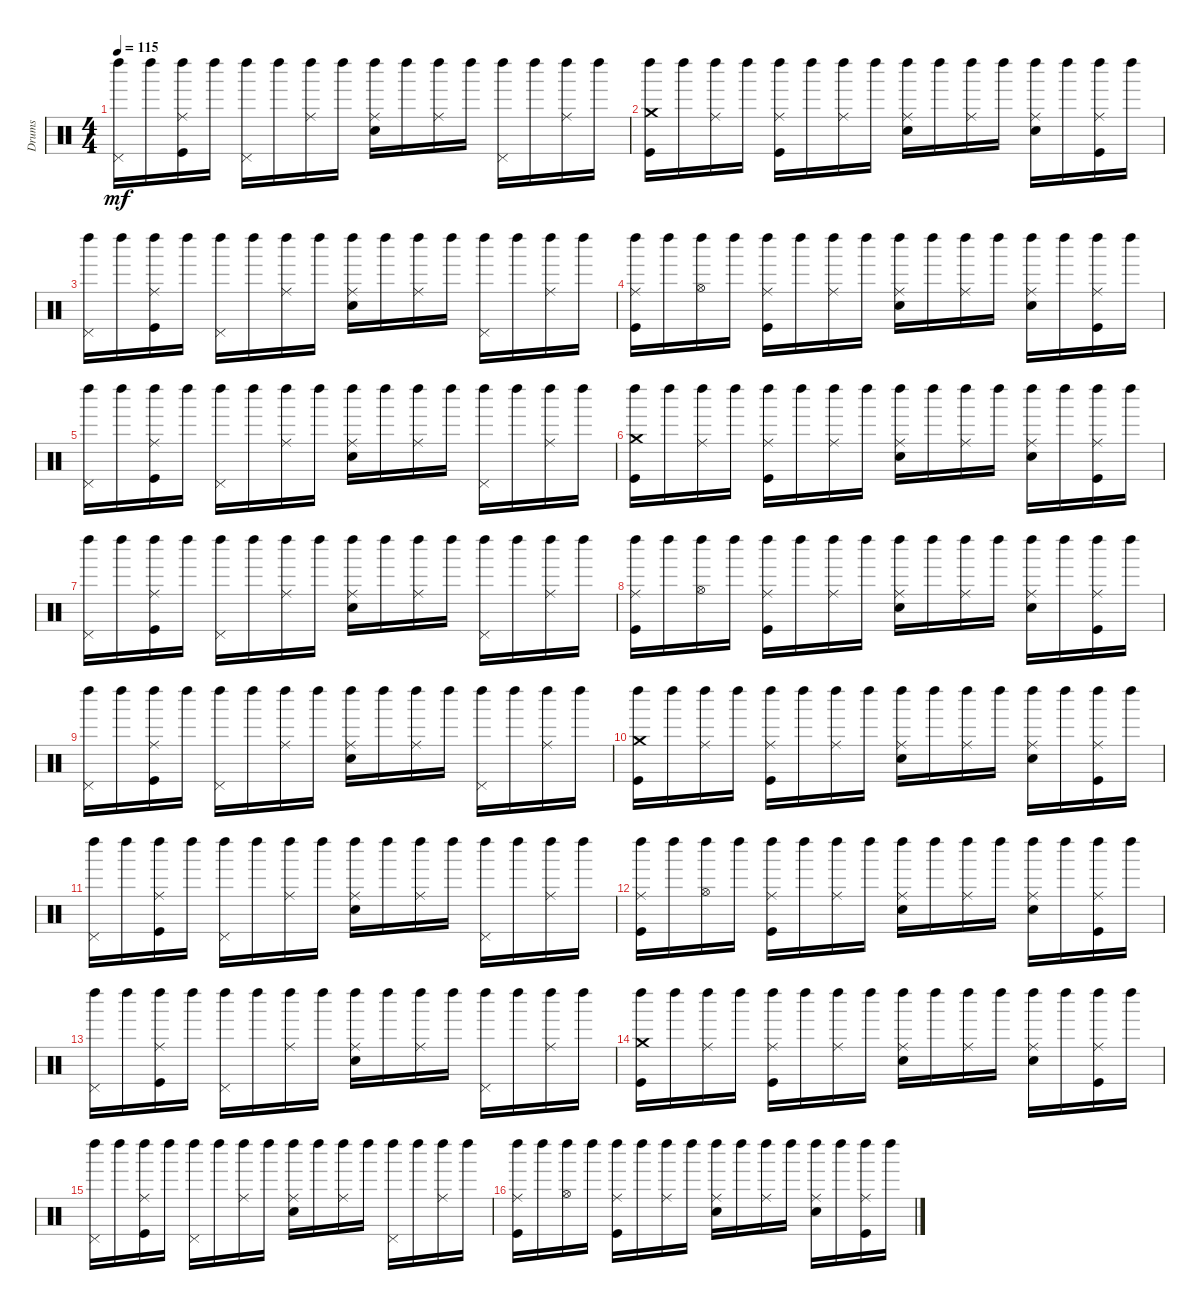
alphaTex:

\track ("Drums" "Drums") {instrument percussion}
\staff {score}
\articulation defaults
\ts (4 4)
\tempo 115
\clef neutral
\ks c
("Left Maraca (hit)" "Pedal Hi-Hat (hit)").16{dy mf} "Left Maraca (hit)".16 ("Left Maraca (hit)" "Ride (middle)" "Kick (hit)").16 "Left Maraca (hit)".16 ("Left Maraca (hit)" "Pedal Hi-Hat (hit)").16 "Left Maraca (hit)".16 ("Left Maraca (hit)" "Ride (middle)").16 "Left Maraca (hit)".16 ("Left Maraca (hit)" "Ride (middle)" "Snare (hit) 2").16 "Left Maraca (hit)".16 ("Left Maraca (hit)" "Ride (middle)").16 "Left Maraca (hit)".16 ("Left Maraca (hit)" "Pedal Hi-Hat (hit)").16 "Left Maraca (hit)".16 ("Left Maraca (hit)" "Ride (middle)").16 "Left Maraca (hit)".16 |
("Left Maraca (hit)" "Crash medium (hit)" "Kick (hit)").16 "Left Maraca (hit)".16 ("Left Maraca (hit)" "Ride (middle)").16 "Left Maraca (hit)".16 ("Left Maraca (hit)" "Ride (middle)" "Kick (hit)").16 "Left Maraca (hit)".16 ("Left Maraca (hit)" "Ride (middle)").16 "Left Maraca (hit)".16 ("Left Maraca (hit)" "Ride (middle)" "Snare (hit) 2").16 "Left Maraca (hit)".16 ("Left Maraca (hit)" "Ride (middle)").16 "Left Maraca (hit)".16 ("Left Maraca (hit)" "Ride (middle)" "Snare (hit) 2").16 "Left Maraca (hit)".16 ("Left Maraca (hit)" "Ride (middle)" "Kick (hit)").16 "Left Maraca (hit)".16 |
("Left Maraca (hit)" "Pedal Hi-Hat (hit)").16 "Left Maraca (hit)".16 ("Left Maraca (hit)" "Ride (middle)" "Kick (hit)").16 "Left Maraca (hit)".16 ("Left Maraca (hit)" "Pedal Hi-Hat (hit)").16 "Left Maraca (hit)".16 ("Left Maraca (hit)" "Ride (middle)").16 "Left Maraca (hit)".16 ("Left Maraca (hit)" "Ride (middle)" "Snare (hit) 2").16 "Left Maraca (hit)".16 ("Left Maraca (hit)" "Ride (middle)").16 "Left Maraca (hit)".16 ("Left Maraca (hit)" "Pedal Hi-Hat (hit)").16 "Left Maraca (hit)".16 ("Left Maraca (hit)" "Ride (middle)").16 "Left Maraca (hit)".16 |
("Left Maraca (hit)" "Ride (middle)" "Kick (hit)").16 "Left Maraca (hit)".16 ("Left Maraca (hit)" "Hi-Hat (open)").16 "Left Maraca (hit)".16 ("Left Maraca (hit)" "Ride (middle)" "Kick (hit)").16 "Left Maraca (hit)".16 ("Left Maraca (hit)" "Ride (middle)").16 "Left Maraca (hit)".16 ("Left Maraca (hit)" "Ride (middle)" "Snare (hit) 2").16 "Left Maraca (hit)".16 ("Left Maraca (hit)" "Ride (middle)").16 "Left Maraca (hit)".16 ("Left Maraca (hit)" "Ride (middle)" "Snare (hit) 2").16 "Left Maraca (hit)".16 ("Left Maraca (hit)" "Ride (middle)" "Kick (hit)").16 "Left Maraca (hit)".16 |
("Left Maraca (hit)" "Pedal Hi-Hat (hit)").16 "Left Maraca (hit)".16 ("Left Maraca (hit)" "Ride (middle)" "Kick (hit)").16 "Left Maraca (hit)".16 ("Left Maraca (hit)" "Pedal Hi-Hat (hit)").16 "Left Maraca (hit)".16 ("Left Maraca (hit)" "Ride (middle)").16 "Left Maraca (hit)".16 ("Left Maraca (hit)" "Ride (middle)" "Snare (hit) 2").16 "Left Maraca (hit)".16 ("Left Maraca (hit)" "Ride (middle)").16 "Left Maraca (hit)".16 ("Left Maraca (hit)" "Pedal Hi-Hat (hit)").16 "Left Maraca (hit)".16 ("Left Maraca (hit)" "Ride (middle)").16 "Left Maraca (hit)".16 |
("Left Maraca (hit)" "Crash medium (hit)" "Kick (hit)").16 "Left Maraca (hit)".16 ("Left Maraca (hit)" "Ride (middle)").16 "Left Maraca (hit)".16 ("Left Maraca (hit)" "Ride (middle)" "Kick (hit)").16 "Left Maraca (hit)".16 ("Left Maraca (hit)" "Ride (middle)").16 "Left Maraca (hit)".16 ("Left Maraca (hit)" "Ride (middle)" "Snare (hit) 2").16 "Left Maraca (hit)".16 ("Left Maraca (hit)" "Ride (middle)").16 "Left Maraca (hit)".16 ("Left Maraca (hit)" "Ride (middle)" "Snare (hit) 2").16 "Left Maraca (hit)".16 ("Left Maraca (hit)" "Ride (middle)" "Kick (hit)").16 "Left Maraca (hit)".16 |
("Left Maraca (hit)" "Pedal Hi-Hat (hit)").16 "Left Maraca (hit)".16 ("Left Maraca (hit)" "Ride (middle)" "Kick (hit)").16 "Left Maraca (hit)".16 ("Left Maraca (hit)" "Pedal Hi-Hat (hit)").16 "Left Maraca (hit)".16 ("Left Maraca (hit)" "Ride (middle)").16 "Left Maraca (hit)".16 ("Left Maraca (hit)" "Ride (middle)" "Snare (hit) 2").16 "Left Maraca (hit)".16 ("Left Maraca (hit)" "Ride (middle)").16 "Left Maraca (hit)".16 ("Left Maraca (hit)" "Pedal Hi-Hat (hit)").16 "Left Maraca (hit)".16 ("Left Maraca (hit)" "Ride (middle)").16 "Left Maraca (hit)".16 |
("Left Maraca (hit)" "Ride (middle)" "Kick (hit)").16 "Left Maraca (hit)".16 ("Left Maraca (hit)" "Hi-Hat (open)").16 "Left Maraca (hit)".16 ("Left Maraca (hit)" "Ride (middle)" "Kick (hit)").16 "Left Maraca (hit)".16 ("Left Maraca (hit)" "Ride (middle)").16 "Left Maraca (hit)".16 ("Left Maraca (hit)" "Ride (middle)" "Snare (hit) 2").16 "Left Maraca (hit)".16 ("Left Maraca (hit)" "Ride (middle)").16 "Left Maraca (hit)".16 ("Left Maraca (hit)" "Ride (middle)" "Snare (hit) 2").16 "Left Maraca (hit)".16 ("Left Maraca (hit)" "Ride (middle)" "Kick (hit)").16 "Left Maraca (hit)".16 |
("Left Maraca (hit)" "Pedal Hi-Hat (hit)").16 "Left Maraca (hit)".16 ("Left Maraca (hit)" "Ride (middle)" "Kick (hit)").16 "Left Maraca (hit)".16 ("Left Maraca (hit)" "Pedal Hi-Hat (hit)").16 "Left Maraca (hit)".16 ("Left Maraca (hit)" "Ride (middle)").16 "Left Maraca (hit)".16 ("Left Maraca (hit)" "Ride (middle)" "Snare (hit) 2").16 "Left Maraca (hit)".16 ("Left Maraca (hit)" "Ride (middle)").16 "Left Maraca (hit)".16 ("Left Maraca (hit)" "Pedal Hi-Hat (hit)").16 "Left Maraca (hit)".16 ("Left Maraca (hit)" "Ride (middle)").16 "Left Maraca (hit)".16 |
("Left Maraca (hit)" "Crash medium (hit)" "Kick (hit)").16 "Left Maraca (hit)".16 ("Left Maraca (hit)" "Ride (middle)").16 "Left Maraca (hit)".16 ("Left Maraca (hit)" "Ride (middle)" "Kick (hit)").16 "Left Maraca (hit)".16 ("Left Maraca (hit)" "Ride (middle)").16 "Left Maraca (hit)".16 ("Left Maraca (hit)" "Ride (middle)" "Snare (hit) 2").16 "Left Maraca (hit)".16 ("Left Maraca (hit)" "Ride (middle)").16 "Left Maraca (hit)".16 ("Left Maraca (hit)" "Ride (middle)" "Snare (hit) 2").16 "Left Maraca (hit)".16 ("Left Maraca (hit)" "Ride (middle)" "Kick (hit)").16 "Left Maraca (hit)".16 |
("Left Maraca (hit)" "Pedal Hi-Hat (hit)").16 "Left Maraca (hit)".16 ("Left Maraca (hit)" "Ride (middle)" "Kick (hit)").16 "Left Maraca (hit)".16 ("Left Maraca (hit)" "Pedal Hi-Hat (hit)").16 "Left Maraca (hit)".16 ("Left Maraca (hit)" "Ride (middle)").16 "Left Maraca (hit)".16 ("Left Maraca (hit)" "Ride (middle)" "Snare (hit) 2").16 "Left Maraca (hit)".16 ("Left Maraca (hit)" "Ride (middle)").16 "Left Maraca (hit)".16 ("Left Maraca (hit)" "Pedal Hi-Hat (hit)").16 "Left Maraca (hit)".16 ("Left Maraca (hit)" "Ride (middle)").16 "Left Maraca (hit)".16 |
("Left Maraca (hit)" "Ride (middle)" "Kick (hit)").16 "Left Maraca (hit)".16 ("Left Maraca (hit)" "Hi-Hat (open)").16 "Left Maraca (hit)".16 ("Left Maraca (hit)" "Ride (middle)" "Kick (hit)").16 "Left Maraca (hit)".16 ("Left Maraca (hit)" "Ride (middle)").16 "Left Maraca (hit)".16 ("Left Maraca (hit)" "Ride (middle)" "Snare (hit) 2").16 "Left Maraca (hit)".16 ("Left Maraca (hit)" "Ride (middle)").16 "Left Maraca (hit)".16 ("Left Maraca (hit)" "Ride (middle)" "Snare (hit) 2").16 "Left Maraca (hit)".16 ("Left Maraca (hit)" "Ride (middle)" "Kick (hit)").16 "Left Maraca (hit)".16 |
("Left Maraca (hit)" "Pedal Hi-Hat (hit)").16 "Left Maraca (hit)".16 ("Left Maraca (hit)" "Ride (middle)" "Kick (hit)").16 "Left Maraca (hit)".16 ("Left Maraca (hit)" "Pedal Hi-Hat (hit)").16 "Left Maraca (hit)".16 ("Left Maraca (hit)" "Ride (middle)").16 "Left Maraca (hit)".16 ("Left Maraca (hit)" "Ride (middle)" "Snare (hit) 2").16 "Left Maraca (hit)".16 ("Left Maraca (hit)" "Ride (middle)").16 "Left Maraca (hit)".16 ("Left Maraca (hit)" "Pedal Hi-Hat (hit)").16 "Left Maraca (hit)".16 ("Left Maraca (hit)" "Ride (middle)").16 "Left Maraca (hit)".16 |
("Left Maraca (hit)" "Crash medium (hit)" "Kick (hit)").16 "Left Maraca (hit)".16 ("Left Maraca (hit)" "Ride (middle)").16 "Left Maraca (hit)".16 ("Left Maraca (hit)" "Ride (middle)" "Kick (hit)").16 "Left Maraca (hit)".16 ("Left Maraca (hit)" "Ride (middle)").16 "Left Maraca (hit)".16 ("Left Maraca (hit)" "Ride (middle)" "Snare (hit) 2").16 "Left Maraca (hit)".16 ("Left Maraca (hit)" "Ride (middle)").16 "Left Maraca (hit)".16 ("Left Maraca (hit)" "Ride (middle)" "Snare (hit) 2").16 "Left Maraca (hit)".16 ("Left Maraca (hit)" "Ride (middle)" "Kick (hit)").16 "Left Maraca (hit)".16 |
("Left Maraca (hit)" "Pedal Hi-Hat (hit)").16 "Left Maraca (hit)".16 ("Left Maraca (hit)" "Ride (middle)" "Kick (hit)").16 "Left Maraca (hit)".16 ("Left Maraca (hit)" "Pedal Hi-Hat (hit)").16 "Left Maraca (hit)".16 ("Left Maraca (hit)" "Ride (middle)").16 "Left Maraca (hit)".16 ("Left Maraca (hit)" "Ride (middle)" "Snare (hit) 2").16 "Left Maraca (hit)".16 ("Left Maraca (hit)" "Ride (middle)").16 "Left Maraca (hit)".16 ("Left Maraca (hit)" "Pedal Hi-Hat (hit)").16 "Left Maraca (hit)".16 ("Left Maraca (hit)" "Ride (middle)").16 "Left Maraca (hit)".16 |
("Left Maraca (hit)" "Ride (middle)" "Kick (hit)").16 "Left Maraca (hit)".16 ("Left Maraca (hit)" "Hi-Hat (open)").16 "Left Maraca (hit)".16 ("Left Maraca (hit)" "Ride (middle)" "Kick (hit)").16 "Left Maraca (hit)".16 ("Left Maraca (hit)" "Ride (middle)").16 "Left Maraca (hit)".16 ("Left Maraca (hit)" "Ride (middle)" "Snare (hit) 2").16 "Left Maraca (hit)".16 ("Left Maraca (hit)" "Ride (middle)").16 "Left Maraca (hit)".16 ("Left Maraca (hit)" "Ride (middle)" "Snare (hit) 2").16 "Left Maraca (hit)".16 ("Left Maraca (hit)" "Ride (middle)" "Kick (hit)").16 "Left Maraca (hit)".16
